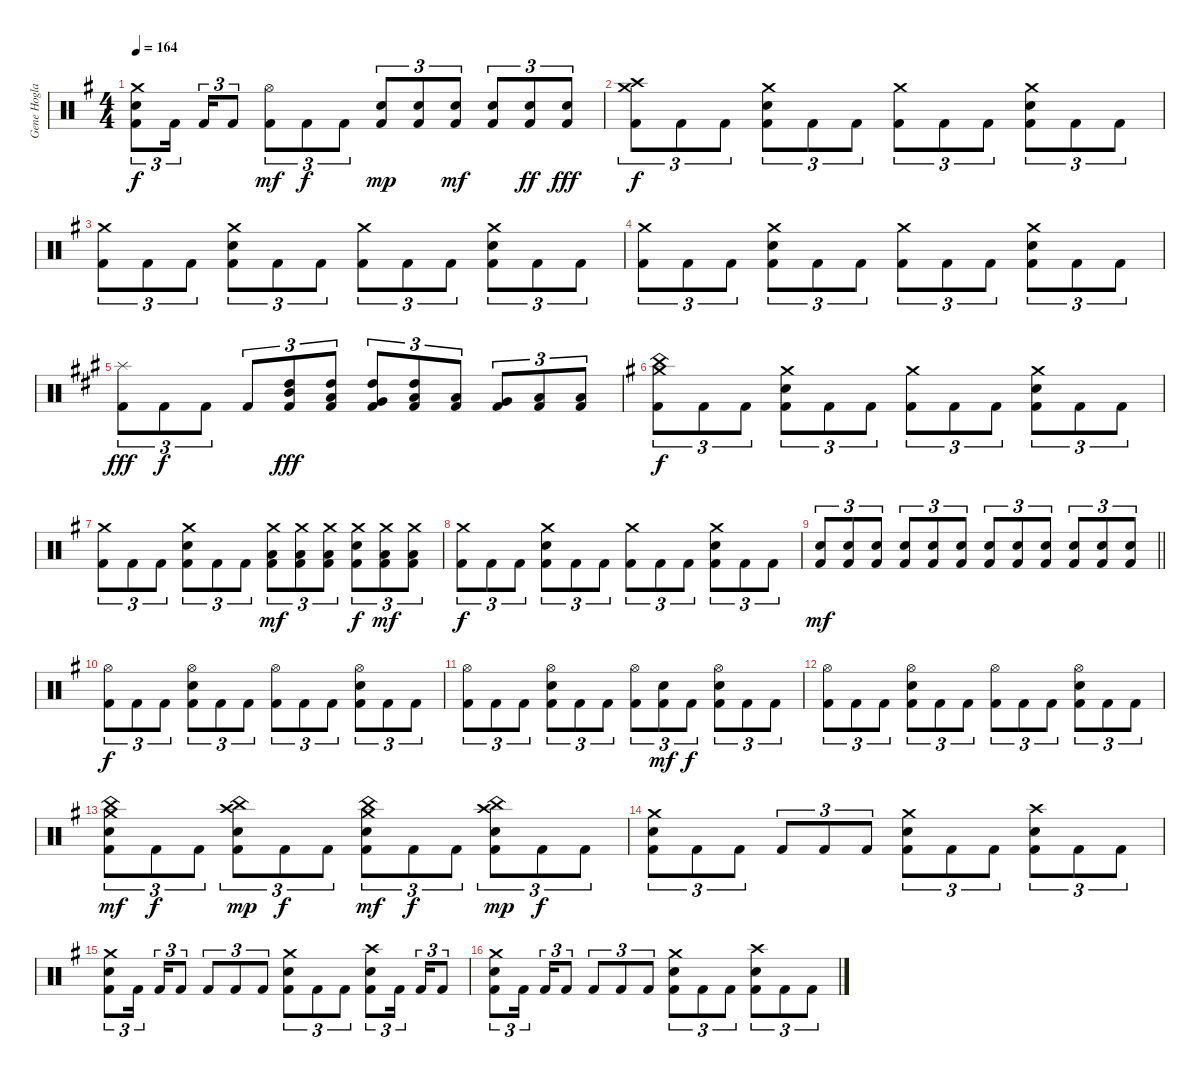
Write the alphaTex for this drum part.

\track ("Gene Hoglan" "Gene Hogla") {instrument percussion}
\staff {score}
\articulation defaults
\ts (4 4)
\tempo 164
\clef neutral
\ks g
("Crash medium (hit)" "Electric Snare (hit)" "Kick (hit) 2").8{tu (3 2) dy f} "Kick (hit) 2".16{tu (3 2) beam splitsecondary} "Kick (hit) 2".16{tu (3 2)} "Kick (hit) 2".8{tu (3 2)} ("Hi-Hat (open)" "Kick (hit) 2").8{tu (3 2) dy mf} "Kick (hit) 2".8{tu (3 2) dy f} "Kick (hit) 2".8{tu (3 2)} ("Electric Snare (hit)" "Kick (hit) 2").8{tu (3 2) dy mp} ("Electric Snare (hit)" "Kick (hit) 2").8{tu (3 2)} ("Electric Snare (hit)" "Kick (hit) 2").8{tu (3 2) dy mf} ("Electric Snare (hit)" "Kick (hit) 2").8{tu (3 2)} ("Electric Snare (hit)" "Kick (hit) 2").8{tu (3 2) dy ff} ("Electric Snare (hit)" "Kick (hit) 2").8{tu (3 2) dy fff} |
("Crash medium (hit)" "Crash high (hit)" "Kick (hit) 2").8{tu (3 2) dy f} "Kick (hit) 2".8{tu (3 2)} "Kick (hit) 2".8{tu (3 2)} ("Crash medium (hit)" "Electric Snare (hit)" "Kick (hit) 2").8{tu (3 2)} "Kick (hit) 2".8{tu (3 2)} "Kick (hit) 2".8{tu (3 2)} ("Crash medium (hit)" "Kick (hit) 2").8{tu (3 2)} "Kick (hit) 2".8{tu (3 2)} "Kick (hit) 2".8{tu (3 2)} ("Crash medium (hit)" "Electric Snare (hit)" "Kick (hit) 2").8{tu (3 2)} "Kick (hit) 2".8{tu (3 2)} "Kick (hit) 2".8{tu (3 2)} |
("Crash medium (hit)" "Kick (hit) 2").8{tu (3 2)} "Kick (hit) 2".8{tu (3 2)} "Kick (hit) 2".8{tu (3 2)} ("Crash medium (hit)" "Electric Snare (hit)" "Kick (hit) 2").8{tu (3 2)} "Kick (hit) 2".8{tu (3 2)} "Kick (hit) 2".8{tu (3 2)} ("Crash medium (hit)" "Kick (hit) 2").8{tu (3 2)} "Kick (hit) 2".8{tu (3 2)} "Kick (hit) 2".8{tu (3 2)} ("Crash medium (hit)" "Electric Snare (hit)" "Kick (hit) 2").8{tu (3 2)} "Kick (hit) 2".8{tu (3 2)} "Kick (hit) 2".8{tu (3 2)} |
("Crash medium (hit)" "Kick (hit) 2").8{tu (3 2)} "Kick (hit) 2".8{tu (3 2)} "Kick (hit) 2".8{tu (3 2)} ("Crash medium (hit)" "Electric Snare (hit)" "Kick (hit) 2").8{tu (3 2)} "Kick (hit) 2".8{tu (3 2)} "Kick (hit) 2".8{tu (3 2)} ("Crash medium (hit)" "Kick (hit) 2").8{tu (3 2)} "Kick (hit) 2".8{tu (3 2)} "Kick (hit) 2".8{tu (3 2)} ("Crash medium (hit)" "Electric Snare (hit)" "Kick (hit) 2").8{tu (3 2)} "Kick (hit) 2".8{tu (3 2)} "Kick (hit) 2".8{tu (3 2)} |
\ks a
("Splash (hit)" "Kick (hit) 2").8{tu (3 2) dy fff} "Kick (hit) 2".8{tu (3 2) dy f} "Kick (hit) 2".8{tu (3 2)} "Kick (hit) 2".8{tu (3 2)} ("High Tom (hit)" "Mid Tom (hit)" "Kick (hit) 2").8{tu (3 2) dy fff} ("High Tom (hit)" "Low Tom (hit)" "Kick (hit) 2").8{tu (3 2)} ("High Tom (hit)" "Very Low Tom (hit)" "Kick (hit) 2").8{tu (3 2)} ("High Tom (hit)" "Low Tom (hit)" "Kick (hit) 2").8{tu (3 2)} ("Low Tom (hit)" "Kick (hit) 2").8{tu (3 2)} ("Very Low Tom (hit)" "Kick (hit) 2").8{tu (3 2)} ("Low Floor Tom (hit)" "Kick (hit) 2").8{tu (3 2)} ("Low Floor Tom (hit)" "Kick (hit) 2").8{tu (3 2)} |
\ks g
("Crash medium (hit)" "China (hit)" "Kick (hit) 2").8{tu (3 2) dy f} "Kick (hit) 2".8{tu (3 2)} "Kick (hit) 2".8{tu (3 2)} ("Crash medium (hit)" "Electric Snare (hit)" "Kick (hit) 2").8{tu (3 2)} "Kick (hit) 2".8{tu (3 2)} "Kick (hit) 2".8{tu (3 2)} ("Crash medium (hit)" "Kick (hit) 2").8{tu (3 2)} "Kick (hit) 2".8{tu (3 2)} "Kick (hit) 2".8{tu (3 2)} ("Crash medium (hit)" "Electric Snare (hit)" "Kick (hit) 2").8{tu (3 2)} "Kick (hit) 2".8{tu (3 2)} "Kick (hit) 2".8{tu (3 2)} |
("Crash medium (hit)" "Kick (hit) 2").8{tu (3 2)} "Kick (hit) 2".8{tu (3 2)} "Kick (hit) 2".8{tu (3 2)} ("Crash medium (hit)" "Electric Snare (hit)" "Kick (hit) 2").8{tu (3 2)} "Kick (hit) 2".8{tu (3 2)} "Kick (hit) 2".8{tu (3 2)} ("Crash medium (hit)" "Low Tom (hit)" "Kick (hit) 2").8{tu (3 2) dy mf} ("Crash medium (hit)" "Low Tom (hit)" "Kick (hit) 2").8{tu (3 2)} ("Crash medium (hit)" "Low Tom (hit)" "Kick (hit) 2").8{tu (3 2)} ("Crash medium (hit)" "Electric Snare (hit)" "Kick (hit) 2").8{tu (3 2) dy f} ("Crash medium (hit)" "Low Tom (hit)" "Kick (hit) 2").8{tu (3 2) dy mf} ("Crash medium (hit)" "Low Tom (hit)" "Kick (hit) 2").8{tu (3 2)} |
("Crash medium (hit)" "Kick (hit) 2").8{tu (3 2) dy f} "Kick (hit) 2".8{tu (3 2)} "Kick (hit) 2".8{tu (3 2)} ("Crash medium (hit)" "Electric Snare (hit)" "Kick (hit) 2").8{tu (3 2)} "Kick (hit) 2".8{tu (3 2)} "Kick (hit) 2".8{tu (3 2)} ("Crash medium (hit)" "Kick (hit) 2").8{tu (3 2)} "Kick (hit) 2".8{tu (3 2)} "Kick (hit) 2".8{tu (3 2)} ("Crash medium (hit)" "Electric Snare (hit)" "Kick (hit) 2").8{tu (3 2)} "Kick (hit) 2".8{tu (3 2)} "Kick (hit) 2".8{tu (3 2)} |
\barLineRight lightlight
("Electric Snare (hit)" "Kick (hit) 2").8{tu (3 2) dy mf} ("Electric Snare (hit)" "Kick (hit) 2").8{tu (3 2)} ("Electric Snare (hit)" "Kick (hit) 2").8{tu (3 2)} ("Electric Snare (hit)" "Kick (hit) 2").8{tu (3 2)} ("Electric Snare (hit)" "Kick (hit) 2").8{tu (3 2)} ("Electric Snare (hit)" "Kick (hit) 2").8{tu (3 2)} ("Electric Snare (hit)" "Kick (hit) 2").8{tu (3 2)} ("Electric Snare (hit)" "Kick (hit) 2").8{tu (3 2)} ("Electric Snare (hit)" "Kick (hit) 2").8{tu (3 2)} ("Electric Snare (hit)" "Kick (hit) 2").8{tu (3 2)} ("Electric Snare (hit)" "Kick (hit) 2").8{tu (3 2)} ("Electric Snare (hit)" "Kick (hit) 2").8{tu (3 2)} |
("Hi-Hat (open)" "Kick (hit) 2").8{tu (3 2) dy f} "Kick (hit) 2".8{tu (3 2)} "Kick (hit) 2".8{tu (3 2)} ("Hi-Hat (open)" "Electric Snare (hit)" "Kick (hit) 2").8{tu (3 2)} "Kick (hit) 2".8{tu (3 2)} "Kick (hit) 2".8{tu (3 2)} ("Hi-Hat (open)" "Kick (hit) 2").8{tu (3 2)} "Kick (hit) 2".8{tu (3 2)} "Kick (hit) 2".8{tu (3 2)} ("Hi-Hat (open)" "Electric Snare (hit)" "Kick (hit) 2").8{tu (3 2)} "Kick (hit) 2".8{tu (3 2)} "Kick (hit) 2".8{tu (3 2)} |
("Hi-Hat (open)" "Kick (hit) 2").8{tu (3 2)} "Kick (hit) 2".8{tu (3 2)} "Kick (hit) 2".8{tu (3 2)} ("Hi-Hat (open)" "Electric Snare (hit)" "Kick (hit) 2").8{tu (3 2)} "Kick (hit) 2".8{tu (3 2)} "Kick (hit) 2".8{tu (3 2)} ("Hi-Hat (open)" "Kick (hit) 2").8{tu (3 2)} ("Electric Snare (hit)" "Kick (hit) 2").8{tu (3 2) dy mf} "Kick (hit) 2".8{tu (3 2) dy f} ("Hi-Hat (open)" "Electric Snare (hit)" "Kick (hit) 2").8{tu (3 2)} "Kick (hit) 2".8{tu (3 2)} "Kick (hit) 2".8{tu (3 2)} |
("Hi-Hat (open)" "Kick (hit) 2").8{tu (3 2)} "Kick (hit) 2".8{tu (3 2)} "Kick (hit) 2".8{tu (3 2)} ("Hi-Hat (open)" "Electric Snare (hit)" "Kick (hit) 2").8{tu (3 2)} "Kick (hit) 2".8{tu (3 2)} "Kick (hit) 2".8{tu (3 2)} ("Hi-Hat (open)" "Kick (hit) 2").8{tu (3 2)} "Kick (hit) 2".8{tu (3 2)} "Kick (hit) 2".8{tu (3 2)} ("Hi-Hat (open)" "Electric Snare (hit)" "Kick (hit) 2").8{tu (3 2)} "Kick (hit) 2".8{tu (3 2)} "Kick (hit) 2".8{tu (3 2)} |
("Crash medium (hit)" "China (hit)" "Electric Snare (hit)" "Kick (hit) 2").8{tu (3 2) dy mf} "Kick (hit) 2".8{tu (3 2) dy f} "Kick (hit) 2".8{tu (3 2)} ("Crash high (hit)" "China (hit)" "Electric Snare (hit)" "Kick (hit) 2").8{tu (3 2) dy mp} "Kick (hit) 2".8{tu (3 2) dy f} "Kick (hit) 2".8{tu (3 2)} ("Crash medium (hit)" "China (hit)" "Electric Snare (hit)" "Kick (hit) 2").8{tu (3 2) dy mf} "Kick (hit) 2".8{tu (3 2) dy f} "Kick (hit) 2".8{tu (3 2)} ("Crash high (hit)" "China (hit)" "Electric Snare (hit)" "Kick (hit) 2").8{tu (3 2) dy mp} "Kick (hit) 2".8{tu (3 2) dy f} "Kick (hit) 2".8{tu (3 2)} |
("Crash medium (hit)" "Electric Snare (hit)" "Kick (hit) 2").8{tu (3 2)} "Kick (hit) 2".8{tu (3 2)} "Kick (hit) 2".8{tu (3 2)} "Kick (hit) 2".8{tu (3 2)} "Kick (hit) 2".8{tu (3 2)} "Kick (hit) 2".8{tu (3 2)} ("Crash medium (hit)" "Electric Snare (hit)" "Kick (hit) 2").8{tu (3 2)} "Kick (hit) 2".8{tu (3 2)} "Kick (hit) 2".8{tu (3 2)} ("Crash high (hit)" "Electric Snare (hit)" "Kick (hit) 2").8{tu (3 2)} "Kick (hit) 2".8{tu (3 2)} "Kick (hit) 2".8{tu (3 2)} |
("Crash medium (hit)" "Electric Snare (hit)" "Kick (hit) 2").8{tu (3 2)} "Kick (hit) 2".16{tu (3 2) beam splitsecondary} "Kick (hit) 2".16{tu (3 2)} "Kick (hit) 2".8{tu (3 2)} "Kick (hit) 2".8{tu (3 2)} "Kick (hit) 2".8{tu (3 2)} "Kick (hit) 2".8{tu (3 2)} ("Crash medium (hit)" "Electric Snare (hit)" "Kick (hit) 2").8{tu (3 2)} "Kick (hit) 2".8{tu (3 2)} "Kick (hit) 2".8{tu (3 2)} ("Crash high (hit)" "Electric Snare (hit)" "Kick (hit) 2").8{tu (3 2)} "Kick (hit) 2".16{tu (3 2) beam splitsecondary} "Kick (hit) 2".16{tu (3 2)} "Kick (hit) 2".8{tu (3 2)} |
("Crash medium (hit)" "Electric Snare (hit)" "Kick (hit) 2").8{tu (3 2)} "Kick (hit) 2".16{tu (3 2) beam splitsecondary} "Kick (hit) 2".16{tu (3 2)} "Kick (hit) 2".8{tu (3 2)} "Kick (hit) 2".8{tu (3 2)} "Kick (hit) 2".8{tu (3 2)} "Kick (hit) 2".8{tu (3 2)} ("Crash medium (hit)" "Electric Snare (hit)" "Kick (hit) 2").8{tu (3 2)} "Kick (hit) 2".8{tu (3 2)} "Kick (hit) 2".8{tu (3 2)} ("Crash high (hit)" "Electric Snare (hit)" "Kick (hit) 2").8{tu (3 2)} "Kick (hit) 2".8{tu (3 2)} "Kick (hit) 2".8{tu (3 2)}
